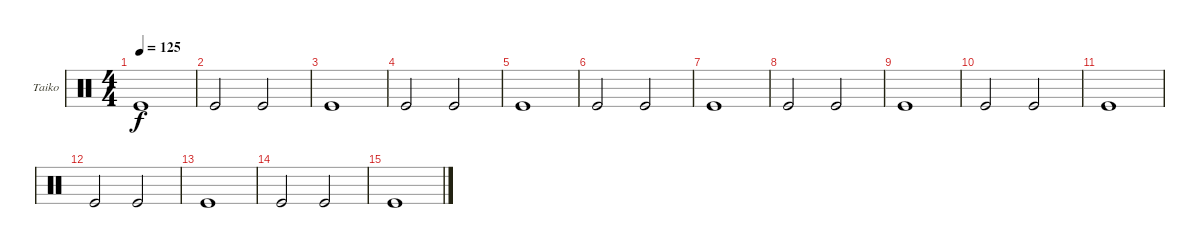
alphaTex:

\defaultSystemsLayout 4
\bracketExtendMode groupsimilarinstruments
\firstSystemTrackNameOrientation horizontal
\otherSystemsTrackNameOrientation horizontal
\track ("Taiko Drum" "Taiko") {instrument percussion}
\staff {score}
\articulation defaults
\ts (4 4)
\tempo 125
\clef neutral
\scale
0.333333
\ks c "Kick (hit)".1{dy f}
|
\scale
0.333333 "Kick (hit)".2 "Kick (hit)".2 |
\scale
0.333333 "Kick (hit)".1 |
\scale
0.333333 "Kick (hit)".2 "Kick (hit)".2 |
\scale
0.333333 "Kick (hit)".1 |
\scale
0.333333 "Kick (hit)".2 "Kick (hit)".2 |
\scale
0.333333 "Kick (hit)".1 |
\scale
0.333333 "Kick (hit)".2 "Kick (hit)".2 |
\scale
0.333333 "Kick (hit)".1 |
\scale
0.333333 "Kick (hit)".2 "Kick (hit)".2 |
\scale
0.333333 "Kick (hit)".1 |
\scale
0.333333 "Kick (hit)".2 "Kick (hit)".2 |
\scale
0.333333 "Kick (hit)".1 |
\scale
0.333333 "Kick (hit)".2 "Kick (hit)".2 |
\scale
0.333333 "Kick (hit)".1 |
\scale
0.333333
